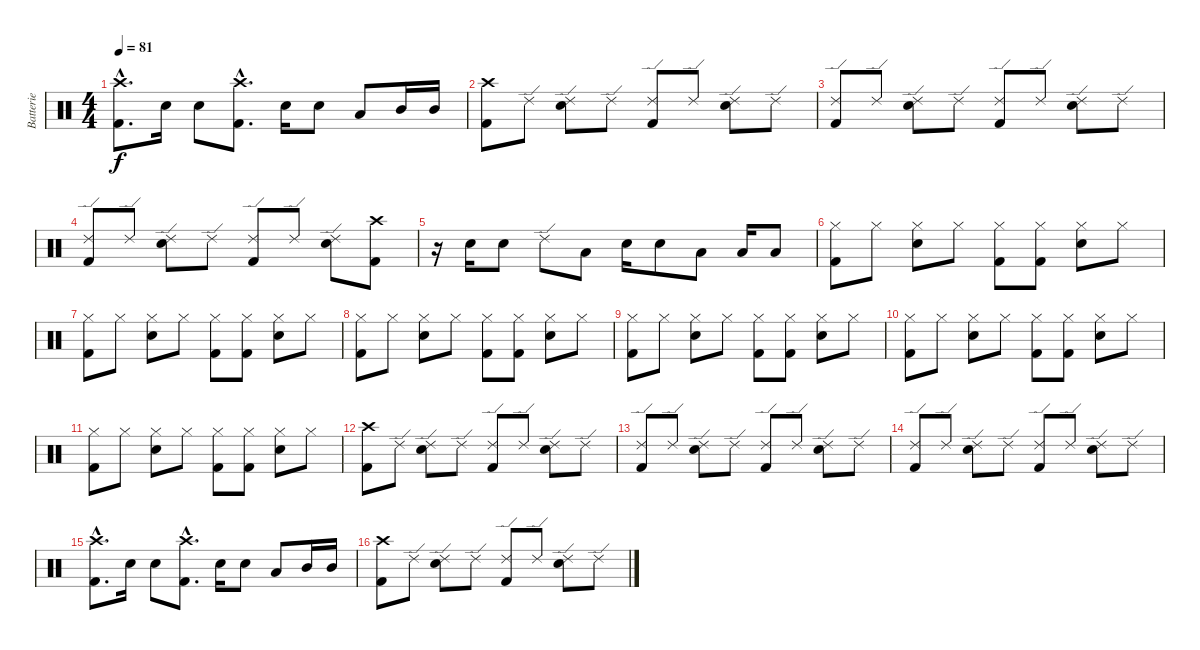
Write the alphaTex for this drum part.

\track ("Batterie" "Batterie") {instrument percussion}
\staff {score}
\articulation defaults
\ts (4 4)
\tempo 81
\clef neutral
\ks c
("Crash high (hit)"{hac} "Kick (hit) 2"{hac}).8{d dy f} "Electric Snare (hit)".16 "Electric Snare (hit)".8 ("Crash high (hit)"{hac} "Kick (hit) 2"{hac}).8{d} "Electric Snare (hit)".16 "Electric Snare (hit)".8 "Low Tom (hit)".8 "Mid Tom (hit)".16 "Mid Tom (hit)".16 |
("Crash high (hit)" "Kick (hit) 2").8 "Ride (edge) 2".8 ("Ride (edge) 2" "Electric Snare (hit)").8 "Ride (edge) 2".8 ("Ride (edge) 2" "Kick (hit) 2").8 "Ride (edge) 2".8 ("Ride (edge) 2" "Electric Snare (hit)").8 "Ride (edge) 2".8 |
("Ride (edge) 2" "Kick (hit) 2").8 "Ride (edge) 2".8 ("Ride (edge) 2" "Electric Snare (hit)").8 "Ride (edge) 2".8 ("Ride (edge) 2" "Kick (hit) 2").8 "Ride (edge) 2".8 ("Ride (edge) 2" "Electric Snare (hit)").8 "Ride (edge) 2".8 |
("Ride (edge) 2" "Kick (hit) 2").8 "Ride (edge) 2".8 ("Ride (edge) 2" "Electric Snare (hit)").8 "Ride (edge) 2".8 ("Ride (edge) 2" "Kick (hit) 2").8 "Ride (edge) 2".8 ("Ride (edge) 2" "Electric Snare (hit)").8 ("Crash high (hit)" "Kick (hit) 2").8 |
r.16 "Electric Snare (hit)".16 "Electric Snare (hit)".8 "Ride (edge) 2".8 "Low Tom (hit)".8 "Electric Snare (hit)".16 "Electric Snare (hit)".8 "Low Tom (hit)".8 "Low Tom (hit)".16 "Low Tom (hit)".8 |
("Hi-Hat (closed)" "Kick (hit) 2").8 "Hi-Hat (closed)".8 ("Hi-Hat (closed)" "Electric Snare (hit)").8 "Hi-Hat (closed)".8 ("Hi-Hat (closed)" "Kick (hit) 2").8 ("Hi-Hat (closed)" "Kick (hit) 2").8 ("Hi-Hat (closed)" "Electric Snare (hit)").8 "Hi-Hat (closed)".8 |
("Hi-Hat (closed)" "Kick (hit) 2").8 "Hi-Hat (closed)".8 ("Hi-Hat (closed)" "Electric Snare (hit)").8 "Hi-Hat (closed)".8 ("Hi-Hat (closed)" "Kick (hit) 2").8 ("Hi-Hat (closed)" "Kick (hit) 2").8 ("Hi-Hat (closed)" "Electric Snare (hit)").8 "Hi-Hat (closed)".8 |
("Hi-Hat (closed)" "Kick (hit) 2").8 "Hi-Hat (closed)".8 ("Hi-Hat (closed)" "Electric Snare (hit)").8 "Hi-Hat (closed)".8 ("Hi-Hat (closed)" "Kick (hit) 2").8 ("Hi-Hat (closed)" "Kick (hit) 2").8 ("Hi-Hat (closed)" "Electric Snare (hit)").8 "Hi-Hat (closed)".8 |
("Hi-Hat (closed)" "Kick (hit) 2").8 "Hi-Hat (closed)".8 ("Hi-Hat (closed)" "Electric Snare (hit)").8 "Hi-Hat (closed)".8 ("Hi-Hat (closed)" "Kick (hit) 2").8 ("Hi-Hat (closed)" "Kick (hit) 2").8 ("Hi-Hat (closed)" "Electric Snare (hit)").8 "Hi-Hat (closed)".8 |
("Hi-Hat (closed)" "Kick (hit) 2").8 "Hi-Hat (closed)".8 ("Hi-Hat (closed)" "Electric Snare (hit)").8 "Hi-Hat (closed)".8 ("Hi-Hat (closed)" "Kick (hit) 2").8 ("Hi-Hat (closed)" "Kick (hit) 2").8 ("Hi-Hat (closed)" "Electric Snare (hit)").8 "Hi-Hat (closed)".8 |
("Hi-Hat (closed)" "Kick (hit) 2").8 "Hi-Hat (closed)".8 ("Hi-Hat (closed)" "Electric Snare (hit)").8 "Hi-Hat (closed)".8 ("Hi-Hat (closed)" "Kick (hit) 2").8 ("Hi-Hat (closed)" "Kick (hit) 2").8 ("Hi-Hat (closed)" "Electric Snare (hit)").8 "Hi-Hat (closed)".8 |
("Crash high (hit)" "Kick (hit) 2").8 "Ride (edge) 2".8 ("Ride (edge) 2" "Electric Snare (hit)").8 "Ride (edge) 2".8 ("Ride (edge) 2" "Kick (hit) 2").8 "Ride (edge) 2".8 ("Ride (edge) 2" "Electric Snare (hit)").8 "Ride (edge) 2".8 |
("Ride (edge) 2" "Kick (hit) 2").8 "Ride (edge) 2".8 ("Ride (edge) 2" "Electric Snare (hit)").8 "Ride (edge) 2".8 ("Ride (edge) 2" "Kick (hit) 2").8 "Ride (edge) 2".8 ("Ride (edge) 2" "Electric Snare (hit)").8 "Ride (edge) 2".8 |
("Ride (edge) 2" "Kick (hit) 2").8 "Ride (edge) 2".8 ("Ride (edge) 2" "Electric Snare (hit)").8 "Ride (edge) 2".8 ("Ride (edge) 2" "Kick (hit) 2").8 "Ride (edge) 2".8 ("Ride (edge) 2" "Electric Snare (hit)").8 "Ride (edge) 2".8 |
("Crash high (hit)"{hac} "Kick (hit) 2"{hac}).8{d} "Electric Snare (hit)".16 "Electric Snare (hit)".8 ("Crash high (hit)"{hac} "Kick (hit) 2"{hac}).8{d} "Electric Snare (hit)".16 "Electric Snare (hit)".8 "Low Tom (hit)".8 "Mid Tom (hit)".16 "Mid Tom (hit)".16 |
("Crash high (hit)" "Kick (hit) 2").8 "Ride (edge) 2".8 ("Ride (edge) 2" "Electric Snare (hit)").8 "Ride (edge) 2".8 ("Ride (edge) 2" "Kick (hit) 2").8 "Ride (edge) 2".8 ("Ride (edge) 2" "Electric Snare (hit)").8 "Ride (edge) 2".8
